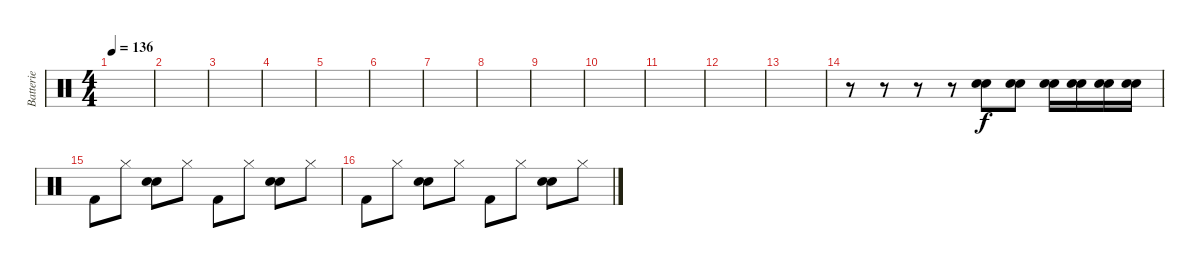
\track ("Batterie" "Batterie") {instrument percussion}
\staff {score}
\articulation defaults
\ts (4 4)
\tempo 136
\clef neutral
\ks c
|
|
|
|
|
|
|
|
|
|
|
|
|
r.8 r.8 r.8 r.8 ("Electric Snare (hit)" "Snare (hit) 2").8 ("Electric Snare (hit)" "Snare (hit) 2").8 ("Electric Snare (hit)" "Snare (hit) 2").16 ("Electric Snare (hit)" "Snare (hit) 2").16 ("Electric Snare (hit)" "Snare (hit) 2").16 ("Electric Snare (hit)" "Snare (hit) 2").16 |
"Kick (hit) 2".8 "Hi-Hat (closed)".8 ("Electric Snare (hit)" "Snare (hit) 2").8 "Hi-Hat (closed)".8 "Kick (hit) 2".8 "Hi-Hat (closed)".8 ("Electric Snare (hit)" "Snare (hit) 2").8 "Hi-Hat (closed)".8 |
"Kick (hit) 2".8 "Hi-Hat (closed)".8 ("Electric Snare (hit)" "Snare (hit) 2").8 "Hi-Hat (closed)".8 "Kick (hit) 2".8 "Hi-Hat (closed)".8 ("Electric Snare (hit)" "Snare (hit) 2").8 "Hi-Hat (closed)".8
